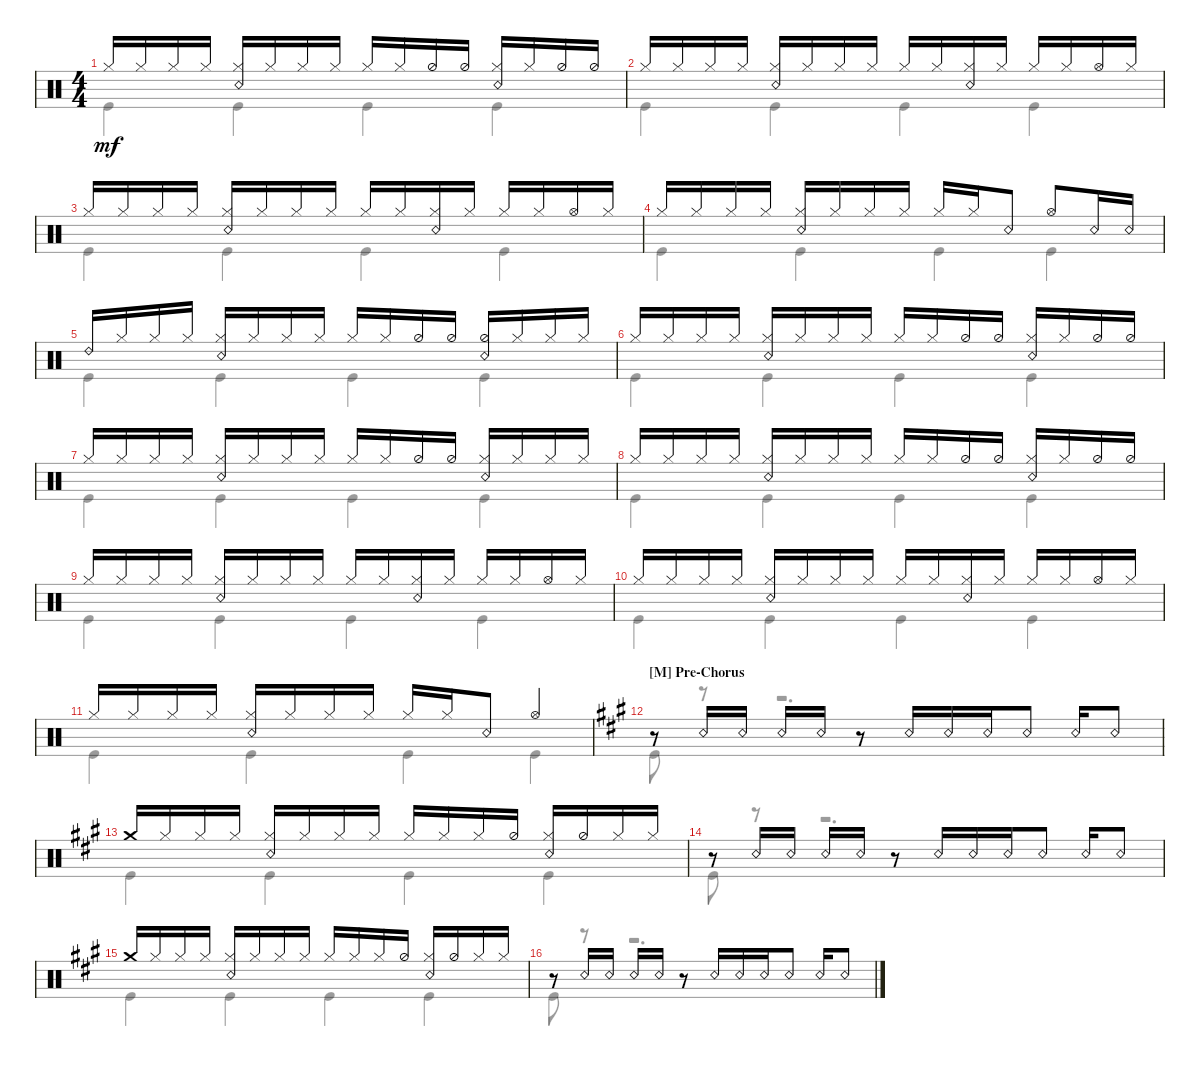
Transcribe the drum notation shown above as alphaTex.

\defaultSystemsLayout 4
\bracketExtendMode groupsimilarinstruments
\singleTrackTrackNamePolicy hidden
\multiTrackTrackNamePolicy hidden
\firstSystemTrackNameOrientation horizontal
\otherSystemsTrackNameOrientation horizontal
\track ("Максим Удалов" "Drums") {instrument percussion}
\staff {score}
\articulation defaults
\voice
\ts (4 4)
\tempo (110 hide)
\clef neutral
\scale
1.02648
\ks c "Hi-Hat (closed)".16{dy mf} "Hi-Hat (closed)".16 "Hi-Hat (closed)".16 "Hi-Hat (closed)".16
("Hi-Hat (closed)" "Snare (rim shot)").16 "Hi-Hat (closed)".16 "Hi-Hat (closed)".16 "Hi-Hat (closed)".16 "Hi-Hat (closed)".16 "Hi-Hat (closed)".16 "Hi-Hat (half)".16 "Hi-Hat (half)".16 ("Snare (rim shot)" "Hi-Hat (closed)").16 "Hi-Hat (closed)".16 "Hi-Hat (half)".16 "Hi-Hat (half)".16 |
\scale
0.973518 "Hi-Hat (closed)".16 "Hi-Hat (closed)".16 "Hi-Hat (closed)".16 "Hi-Hat (closed)".16 ("Hi-Hat (closed)" "Snare (rim shot)").16 "Hi-Hat (closed)".16 "Hi-Hat (closed)".16 "Hi-Hat (closed)".16 "Hi-Hat (closed)".16 "Hi-Hat (closed)".16 ("Hi-Hat (closed)" "Snare (rim shot)").16 "Hi-Hat (closed)".16 "Hi-Hat (closed)".16 "Hi-Hat (closed)".16 "Hi-Hat (open)".16 "Hi-Hat (closed)".16 |
\scale
1.02648 "Hi-Hat (closed)".16 "Hi-Hat (closed)".16 "Hi-Hat (closed)".16 "Hi-Hat (closed)".16 ("Hi-Hat (closed)" "Snare (rim shot)").16 "Hi-Hat (closed)".16 "Hi-Hat (closed)".16 "Hi-Hat (closed)".16 "Hi-Hat (closed)".16 "Hi-Hat (closed)".16 ("Hi-Hat (closed)" "Snare (rim shot)").16 "Hi-Hat (closed)".16 "Hi-Hat (closed)".16 "Hi-Hat (closed)".16 "Hi-Hat (open)".16 "Hi-Hat (closed)".16 |
\scale
0.973518 "Hi-Hat (closed)".16 "Hi-Hat (closed)".16 "Hi-Hat (closed)".16 "Hi-Hat (closed)".16 ("Hi-Hat (closed)" "Snare (rim shot)").16 "Hi-Hat (closed)".16 "Hi-Hat (closed)".16 "Hi-Hat (closed)".16 "Hi-Hat (closed)".16 "Hi-Hat (closed)".16 "Snare (rim shot)".8 "Hi-Hat (open)".8 "Snare (rim shot)".16 "Snare (rim shot)".16 |
\scale
1.02648 "Ride (bell) 2".16 "Hi-Hat (closed)".16 "Hi-Hat (closed)".16 "Hi-Hat (closed)".16 ("Hi-Hat (closed)" "Snare (rim shot)").16 "Hi-Hat (closed)".16 "Hi-Hat (closed)".16 "Hi-Hat (closed)".16 "Hi-Hat (closed)".16 "Hi-Hat (closed)".16 "Hi-Hat (half)".16 "Hi-Hat (half)".16 ("Hi-Hat (half)" "Snare (rim shot)").16 "Hi-Hat (closed)".16 "Hi-Hat (closed)".16 "Hi-Hat (closed)".16 |
\scale
0.973518 "Hi-Hat (closed)".16 "Hi-Hat (closed)".16 "Hi-Hat (closed)".16 "Hi-Hat (closed)".16 ("Hi-Hat (closed)" "Snare (rim shot)").16 "Hi-Hat (closed)".16 "Hi-Hat (closed)".16 "Hi-Hat (closed)".16 "Hi-Hat (closed)".16 "Hi-Hat (closed)".16 "Hi-Hat (half)".16 "Hi-Hat (half)".16 ("Snare (rim shot)" "Hi-Hat (closed)").16 "Hi-Hat (closed)".16 "Hi-Hat (half)".16 "Hi-Hat (half)".16 |
\scale
1.02648 "Hi-Hat (closed)".16 "Hi-Hat (closed)".16 "Hi-Hat (closed)".16 "Hi-Hat (closed)".16 ("Hi-Hat (closed)" "Snare (rim shot)").16 "Hi-Hat (closed)".16 "Hi-Hat (closed)".16 "Hi-Hat (closed)".16 "Hi-Hat (closed)".16 "Hi-Hat (closed)".16 "Hi-Hat (half)".16 "Hi-Hat (half)".16 ("Snare (rim shot)" "Hi-Hat (closed)").16 "Hi-Hat (closed)".16 "Hi-Hat (closed)".16 "Hi-Hat (closed)".16 |
\scale
0.973518 "Hi-Hat (closed)".16 "Hi-Hat (closed)".16 "Hi-Hat (closed)".16 "Hi-Hat (closed)".16 ("Hi-Hat (closed)" "Snare (rim shot)").16 "Hi-Hat (closed)".16 "Hi-Hat (closed)".16 "Hi-Hat (closed)".16 "Hi-Hat (closed)".16 "Hi-Hat (closed)".16 "Hi-Hat (half)".16 "Hi-Hat (half)".16 ("Snare (rim shot)" "Hi-Hat (closed)").16 "Hi-Hat (closed)".16 "Hi-Hat (half)".16 "Hi-Hat (half)".16 |
\scale
1.02648 "Hi-Hat (closed)".16 "Hi-Hat (closed)".16 "Hi-Hat (closed)".16 "Hi-Hat (closed)".16 ("Hi-Hat (closed)" "Snare (rim shot)").16 "Hi-Hat (closed)".16 "Hi-Hat (closed)".16 "Hi-Hat (closed)".16 "Hi-Hat (closed)".16 "Hi-Hat (closed)".16 ("Hi-Hat (closed)" "Snare (rim shot)").16 "Hi-Hat (closed)".16 "Hi-Hat (closed)".16 "Hi-Hat (closed)".16 "Hi-Hat (open)".16 "Hi-Hat (closed)".16 |
\scale
0.973518 "Hi-Hat (closed)".16 "Hi-Hat (closed)".16 "Hi-Hat (closed)".16 "Hi-Hat (closed)".16 ("Hi-Hat (closed)" "Snare (rim shot)").16 "Hi-Hat (closed)".16 "Hi-Hat (closed)".16 "Hi-Hat (closed)".16 "Hi-Hat (closed)".16 "Hi-Hat (closed)".16 ("Hi-Hat (closed)" "Snare (rim shot)").16 "Hi-Hat (closed)".16 "Hi-Hat (closed)".16 "Hi-Hat (closed)".16 "Hi-Hat (open)".16 "Hi-Hat (closed)".16 |
\scale
1.02648 "Hi-Hat (closed)".16 "Hi-Hat (closed)".16 "Hi-Hat (closed)".16 "Hi-Hat (closed)".16 ("Hi-Hat (closed)" "Snare (rim shot)").16 "Hi-Hat (closed)".16 "Hi-Hat (closed)".16 "Hi-Hat (closed)".16 "Hi-Hat (closed)".16 "Hi-Hat (closed)".16 "Snare (rim shot)".8 "Hi-Hat (open)".4 |
\section ("M" "Pre-Chorus")
\scale
0.973518
\ks a
r.8 "Snare (rim shot)".16 "Snare (rim shot)".16 "Snare (rim shot)".16 "Snare (rim shot)".16 r.8 "Snare (rim shot)".16 "Snare (rim shot)".16 "Snare (rim shot)".16 "Snare (rim shot)".8 "Snare (rim shot)".16 "Snare (rim shot)".8 |
\scale
1.02648 "Crash medium (hit)".16 "Hi-Hat (closed)".16 "Hi-Hat (closed)".16 "Hi-Hat (closed)".16 ("Hi-Hat (closed)" "Snare (rim shot)").16 "Hi-Hat (closed)".16 "Hi-Hat (closed)".16 "Hi-Hat (closed)".16 "Hi-Hat (closed)".16 "Hi-Hat (closed)".16 "Hi-Hat (closed)".16 "Hi-Hat (half)".16 ("Hi-Hat (closed)" "Snare (rim shot)").16 "Hi-Hat (half)".16 "Hi-Hat (closed)".16 "Hi-Hat (closed)".16 |
\scale
0.973518 r.8 "Snare (rim shot)".16 "Snare (rim shot)".16 "Snare (rim shot)".16 "Snare (rim shot)".16 r.8 "Snare (rim shot)".16 "Snare (rim shot)".16 "Snare (rim shot)".16 "Snare (rim shot)".8 "Snare (rim shot)".16 "Snare (rim shot)".8 |
\scale
1.02648 "Crash medium (hit)".16 "Hi-Hat (closed)".16 "Hi-Hat (closed)".16 "Hi-Hat (closed)".16 ("Hi-Hat (closed)" "Snare (rim shot)").16 "Hi-Hat (closed)".16 "Hi-Hat (closed)".16 "Hi-Hat (closed)".16 "Hi-Hat (closed)".16 "Hi-Hat (closed)".16 "Hi-Hat (closed)".16 "Hi-Hat (half)".16 ("Hi-Hat (closed)" "Snare (rim shot)").16 "Hi-Hat (half)".16 "Hi-Hat (closed)".16 "Hi-Hat (closed)".16 |
\scale
0.973518 r.8 "Snare (rim shot)".16 "Snare (rim shot)".16 "Snare (rim shot)".16 "Snare (rim shot)".16 r.8 "Snare (rim shot)".16 "Snare (rim shot)".16 "Snare (rim shot)".16 "Snare (rim shot)".8 "Snare (rim shot)".16 "Snare (rim shot)".8
\voice
\clef neutral
\ottava regular
\simile none
\scale
1.02648
\ks c "Kick (hit)".4{dy mf} "Kick (hit)".4 "Kick (hit)".4 "Kick (hit)".4
|
\scale
0.973518 "Kick (hit)".4 "Kick (hit)".4 "Kick (hit)".4 "Kick (hit)".4 |
\scale
1.02648 "Kick (hit)".4 "Kick (hit)".4 "Kick (hit)".4 "Kick (hit)".4 |
\scale
0.973518 "Kick (hit)".4 "Kick (hit)".4 "Kick (hit)".4 "Kick (hit)".4 |
\scale
1.02648 "Kick (hit)".4 "Kick (hit)".4 "Kick (hit)".4 "Kick (hit)".4 |
\scale
0.973518 "Kick (hit)".4 "Kick (hit)".4 "Kick (hit)".4 "Kick (hit)".4 |
\scale
1.02648 "Kick (hit)".4 "Kick (hit)".4 "Kick (hit)".4 "Kick (hit)".4 |
\scale
0.973518 "Kick (hit)".4 "Kick (hit)".4 "Kick (hit)".4 "Kick (hit)".4 |
\scale
1.02648 "Kick (hit)".4 "Kick (hit)".4 "Kick (hit)".4 "Kick (hit)".4 |
\scale
0.973518 "Kick (hit)".4 "Kick (hit)".4 "Kick (hit)".4 "Kick (hit)".4 |
\scale
1.02648 "Kick (hit)".4 "Kick (hit)".4 "Kick (hit)".4 "Kick (hit)".4 |
\scale
0.973518
\ks a "Kick (hit)".8
r.8 r.2{d} |
\scale
1.02648 "Kick (hit)".4 "Kick (hit)".4 "Kick (hit)".4 "Kick (hit)".4 |
\scale
0.973518 "Kick (hit)".8 r.8 r.2{d} |
\scale
1.02648 "Kick (hit)".4 "Kick (hit)".4 "Kick (hit)".4 "Kick (hit)".4 |
\scale
0.973518 "Kick (hit)".8 r.8 r.2{d}
